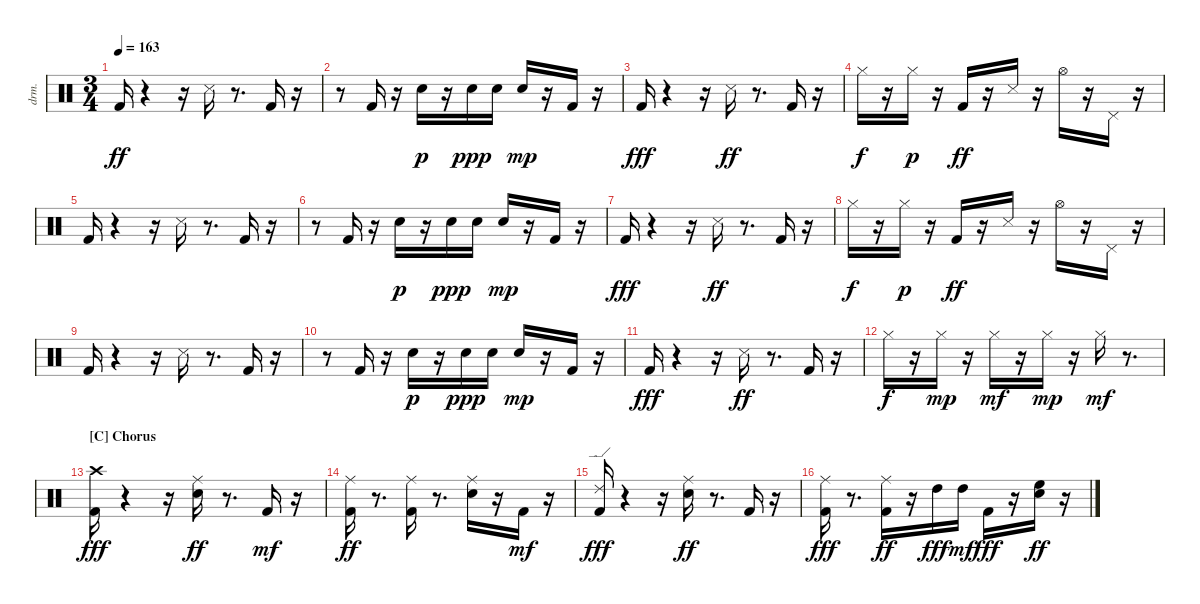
\bracketExtendMode nobrackets
\track ("EZdrummer 3" "drm.") {instrument percussion}
\staff {score}
\articulation defaults
\ts (3 4)
\tempo 163
\clef neutral
\ks aminor "Kick (hit) 2".16{dy ff}
r.4 r.16 "Snare (side stick) 3"{acc #}.16 r.8{d} "Kick (hit) 2".16 r.16 |
r.8 "Kick (hit) 2".16 r.16 "Snare (hit) 2".16{dy p} r.16 "Snare (hit) 2".16{dy ppp} "Snare (hit) 2".16 "Snare (hit) 2".16{dy mp} r.16 "Kick (hit) 2".16 r.16 |
"Kick (hit) 2".16{dy fff} r.4 r.16 "Snare (side stick) 3"{acc #}.16{dy ff} r.8{d} "Kick (hit) 2".16 r.16 |
"Hi-Hat (closed)"{acc #}.16{dy f} r.16 "Hi-Hat (closed)"{acc #}.16{dy p} r.16 "Kick (hit) 2".16{dy ff} r.16 "Snare (side stick) 3"{acc #}.16 r.16 "Hi-Hat (open)"{acc #}.16 r.16 "Pedal Hi-Hat (hit)"{acc #}.16 r.16 |
"Kick (hit) 2".16 r.4 r.16 "Snare (side stick) 3"{acc #}.16 r.8{d} "Kick (hit) 2".16 r.16 |
r.8 "Kick (hit) 2".16 r.16 "Snare (hit) 2".16{dy p} r.16 "Snare (hit) 2".16{dy ppp} "Snare (hit) 2".16 "Snare (hit) 2".16{dy mp} r.16 "Kick (hit) 2".16 r.16 |
"Kick (hit) 2".16{dy fff} r.4 r.16 "Snare (side stick) 3"{acc #}.16{dy ff} r.8{d} "Kick (hit) 2".16 r.16 |
"Hi-Hat (closed)"{acc #}.16{dy f} r.16 "Hi-Hat (closed)"{acc #}.16{dy p} r.16 "Kick (hit) 2".16{dy ff} r.16 "Snare (side stick) 3"{acc #}.16 r.16 "Hi-Hat (open)"{acc #}.16 r.16 "Pedal Hi-Hat (hit)"{acc #}.16 r.16 |
"Kick (hit) 2".16 r.4 r.16 "Snare (side stick) 3"{acc #}.16 r.8{d} "Kick (hit) 2".16 r.16 |
r.8 "Kick (hit) 2".16 r.16 "Snare (hit) 2".16{dy p} r.16 "Snare (hit) 2".16{dy ppp} "Snare (hit) 2".16 "Snare (hit) 2".16{dy mp} r.16 "Kick (hit) 2".16 r.16 |
"Kick (hit) 2".16{dy fff} r.4 r.16 "Snare (side stick) 3"{acc #}.16{dy ff} r.8{d} "Kick (hit) 2".16 r.16 |
"Hi-Hat (closed)"{acc #}.16{dy f} r.16 "Hi-Hat (closed)"{acc #}.16{dy mp} r.16 "Hi-Hat (closed)"{acc #}.16{dy mf} r.16 "Hi-Hat (closed)"{acc #}.16{dy mp} r.16 "Hi-Hat (closed)"{acc #}.16{dy mf} r.8{d} |
\section ("C" "Chorus")
("Kick (hit) 2" "Crash high (hit)"{acc #}).16{dy fff} r.4 r.16 ("Snare (hit) 2" "Ride (middle)"{acc #}).16{dy ff} r.8{d} "Kick (hit) 2".16{dy mf} r.16 |
("Kick (hit) 2" "Ride (middle)"{acc #}).16{dy ff} r.8{d} ("Kick (hit) 2" "Ride (middle)"{acc #}).16 r.8{d} ("Snare (hit) 2" "Ride (middle)"{acc #}).16 r.16 "Kick (hit) 2".16{dy mf} r.16 |
("Kick (hit) 2" "Ride (edge) 2").16{dy fff} r.4 r.16 ("Snare (hit) 2" "Ride (middle)"{acc #}).16{dy ff} r.8{d} "Kick (hit) 2".16 r.16 |
("Kick (hit) 2" "Ride (middle)"{acc #}).16{dy fff} r.8{d} ("Kick (hit) 2" "Ride (middle)"{acc #}).16{dy ff} r.16 "High Tom (hit)".16{dy fff} "High Tom (hit)".16{dy mf} "Kick (hit) 2".16{dy fff} r.16 ("Snare (hit) 2" "High Floor Tom (hit)").16{dy ff} r.16
